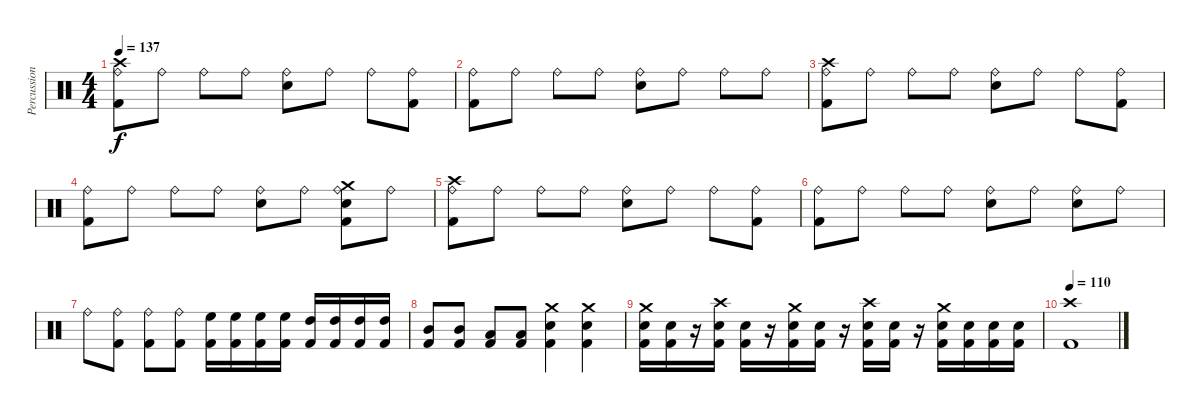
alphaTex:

\track ("Percussion" "Percussion") {instrument percussion}
\staff {score}
\articulation defaults
\ts (4 4)
\tempo 137
\clef neutral
\ks c
("Crash high (hit)" "Ride (bell)" "Kick (hit) 2").8{dy f} "Ride (bell)".8 "Ride (bell)".8 "Ride (bell)".8 ("Ride (bell)" "Electric Snare (hit)").8 "Ride (bell)".8 "Ride (bell)".8 ("Ride (bell)" "Kick (hit) 2").8 |
("Ride (bell)" "Kick (hit) 2").8 "Ride (bell)".8 "Ride (bell)".8 "Ride (bell)".8 ("Ride (bell)" "Electric Snare (hit)").8 "Ride (bell)".8 "Ride (bell)".8 "Ride (bell)".8 |
("Crash high (hit)" "Ride (bell)" "Kick (hit) 2").8 "Ride (bell)".8 "Ride (bell)".8 "Ride (bell)".8 ("Ride (bell)" "Electric Snare (hit)").8 "Ride (bell)".8 "Ride (bell)".8 ("Ride (bell)" "Kick (hit) 2").8 |
("Ride (bell)" "Kick (hit) 2").8 "Ride (bell)".8 "Ride (bell)".8 "Ride (bell)".8 ("Ride (bell)" "Electric Snare (hit)").8 "Ride (bell)".8 ("Crash medium (hit)" "Ride (bell)" "Electric Snare (hit)" "Kick (hit) 2").8 "Ride (bell)".8 |
("Crash high (hit)" "Ride (bell)" "Kick (hit) 2").8 "Ride (bell)".8 "Ride (bell)".8 "Ride (bell)".8 ("Ride (bell)" "Electric Snare (hit)").8 "Ride (bell)".8 "Ride (bell)".8 ("Ride (bell)" "Kick (hit) 2").8 |
("Ride (bell)" "Kick (hit) 2").8 "Ride (bell)".8 "Ride (bell)".8 "Ride (bell)".8 ("Ride (bell)" "Electric Snare (hit)").8 "Ride (bell)".8 ("Ride (bell)" "Electric Snare (hit)").8 "Ride (bell)".8 |
"Ride (bell)".8 ("Ride (bell)" "Kick (hit) 2").8 ("Ride (bell)" "Kick (hit) 2").8 ("Ride (bell)" "Kick (hit) 2").8 ("High Floor Tom (hit)" "Kick (hit) 2").16 ("High Floor Tom (hit)" "Kick (hit) 2").16 ("High Floor Tom (hit)" "Kick (hit) 2").16 ("High Floor Tom (hit)" "Kick (hit) 2").16 ("High Tom (hit)" "Kick (hit) 2").16 ("High Tom (hit)" "Kick (hit) 2").16 ("High Tom (hit)" "Kick (hit) 2").16 ("High Tom (hit)" "Kick (hit) 2").16 |
("Mid Tom (hit)" "Kick (hit) 2").8 ("Mid Tom (hit)" "Kick (hit) 2").8 ("Low Tom (hit)" "Kick (hit) 2").8 ("Low Tom (hit)" "Kick (hit) 2").8 ("Crash medium (hit)" "Electric Snare (hit)" "Kick (hit) 2").4 ("Crash medium (hit)" "Electric Snare (hit)" "Kick (hit) 2").4 |
("Crash medium (hit)" "Electric Snare (hit)" "Kick (hit) 2").16 ("Electric Snare (hit)" "Kick (hit) 2").16 r.16 ("Crash high (hit)" "Electric Snare (hit)" "Kick (hit) 2").16 ("Electric Snare (hit)" "Kick (hit) 2").16 r.16 ("Crash medium (hit)" "Electric Snare (hit)" "Kick (hit) 2").16 ("Electric Snare (hit)" "Kick (hit) 2").16 r.16 ("Crash high (hit)" "Electric Snare (hit)" "Kick (hit) 2").16 ("Electric Snare (hit)" "Kick (hit) 2").16 r.16 ("Crash medium (hit)" "Electric Snare (hit)" "Kick (hit) 2").16 ("Electric Snare (hit)" "Kick (hit) 2").16 ("Electric Snare (hit)" "Kick (hit) 2").16 ("Electric Snare (hit)" "Kick (hit) 2").16 |
\tempo 105
\tempo 110
("Crash high (hit)" "Kick (hit) 2").1
